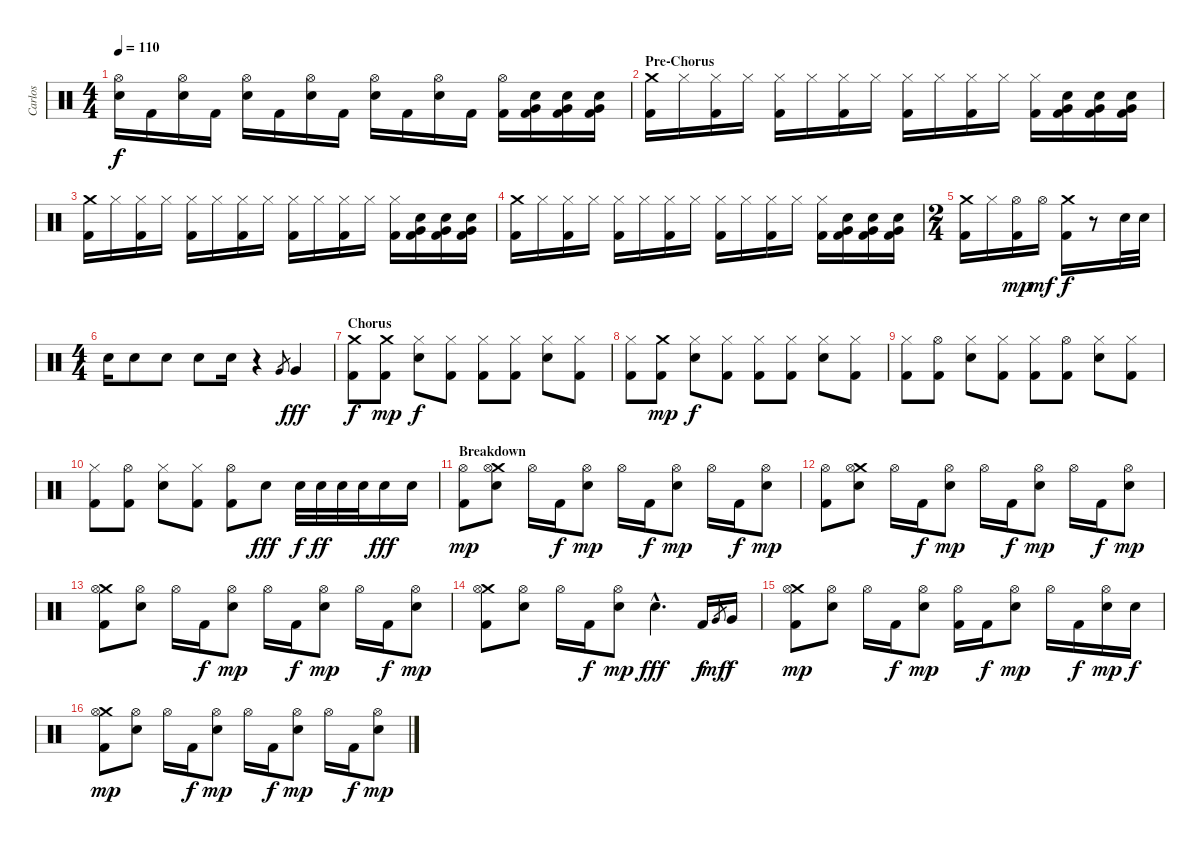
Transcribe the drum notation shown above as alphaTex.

\track ("Carlos" "Carlos") {instrument percussion}
\staff {score}
\articulation defaults
\ts (4 4)
\tempo 110
\clef neutral
\ks c
("Hi-Hat (open)" "Electric Snare (hit)").16{dy f} "Kick (hit) 2".16 ("Hi-Hat (open)" "Electric Snare (hit)").16 "Kick (hit) 2".16 ("Hi-Hat (open)" "Electric Snare (hit)").16 "Kick (hit) 2".16 ("Hi-Hat (open)" "Electric Snare (hit)").16 "Kick (hit) 2".16 ("Hi-Hat (open)" "Electric Snare (hit)").16 "Kick (hit) 2".16 ("Hi-Hat (open)" "Electric Snare (hit)").16 "Kick (hit) 2".16 ("Hi-Hat (open)" "Kick (hit) 2").16 ("Electric Snare (hit)" "Very Low Tom (hit)" "Kick (hit) 2").16 ("Electric Snare (hit)" "Very Low Tom (hit)" "Kick (hit) 2").16 ("Electric Snare (hit)" "Very Low Tom (hit)" "Kick (hit) 2").16 |
\section ("" "Pre-Chorus")
("Crash medium (hit)" "Kick (hit) 2").16 "Hi-Hat (closed)".16 ("Hi-Hat (closed)" "Kick (hit) 2").16 "Hi-Hat (closed)".16 ("Hi-Hat (closed)" "Kick (hit) 2").16 "Hi-Hat (closed)".16 ("Hi-Hat (closed)" "Kick (hit) 2").16 "Hi-Hat (closed)".16 ("Hi-Hat (closed)" "Kick (hit) 2").16 "Hi-Hat (closed)".16 ("Hi-Hat (closed)" "Kick (hit) 2").16 "Hi-Hat (closed)".16 ("Hi-Hat (closed)" "Kick (hit) 2").16 ("Electric Snare (hit)" "Very Low Tom (hit)" "Kick (hit) 2").16 ("Electric Snare (hit)" "Very Low Tom (hit)" "Kick (hit) 2").16 ("Electric Snare (hit)" "Very Low Tom (hit)" "Kick (hit) 2").16 |
("Crash medium (hit)" "Kick (hit) 2").16 "Hi-Hat (closed)".16 ("Hi-Hat (closed)" "Kick (hit) 2").16 "Hi-Hat (closed)".16 ("Hi-Hat (closed)" "Kick (hit) 2").16 "Hi-Hat (closed)".16 ("Hi-Hat (closed)" "Kick (hit) 2").16 "Hi-Hat (closed)".16 ("Hi-Hat (closed)" "Kick (hit) 2").16 "Hi-Hat (closed)".16 ("Hi-Hat (closed)" "Kick (hit) 2").16 "Hi-Hat (closed)".16 ("Hi-Hat (closed)" "Kick (hit) 2").16 ("Electric Snare (hit)" "Very Low Tom (hit)" "Kick (hit) 2").16 ("Electric Snare (hit)" "Very Low Tom (hit)" "Kick (hit) 2").16 ("Electric Snare (hit)" "Very Low Tom (hit)" "Kick (hit) 2").16 |
("Crash medium (hit)" "Kick (hit) 2").16 "Hi-Hat (closed)".16 ("Hi-Hat (closed)" "Kick (hit) 2").16 "Hi-Hat (closed)".16 ("Hi-Hat (closed)" "Kick (hit) 2").16 "Hi-Hat (closed)".16 ("Hi-Hat (closed)" "Kick (hit) 2").16 "Hi-Hat (closed)".16 ("Hi-Hat (closed)" "Kick (hit) 2").16 "Hi-Hat (closed)".16 ("Hi-Hat (closed)" "Kick (hit) 2").16 "Hi-Hat (closed)".16 ("Hi-Hat (closed)" "Kick (hit) 2").16 ("Electric Snare (hit)" "Very Low Tom (hit)" "Kick (hit) 2").16 ("Electric Snare (hit)" "Very Low Tom (hit)" "Kick (hit) 2").16 ("Electric Snare (hit)" "Very Low Tom (hit)" "Kick (hit) 2").16 |
\ts (2 4)
("Crash medium (hit)" "Kick (hit) 2").16 "Hi-Hat (closed)".16 ("Hi-Hat (open)" "Kick (hit) 2").16{dy mp} "Hi-Hat (open)".16{dy mf} ("Crash medium (hit)" "Kick (hit) 2").16{dy f} r.8 "Electric Snare (hit)".32 "Electric Snare (hit)".32 |
\ts (4 4)
"Electric Snare (hit)".16 "Electric Snare (hit)".8 "Electric Snare (hit)".8 "Electric Snare (hit)".8 "Electric Snare (hit)".16 r.4 "Very Low Tom (hit)".8{gr} "Very Low Tom (hit)".4{dy fff} |
\section ("" "Chorus")
("Crash medium (hit)" "Kick (hit) 2").8{dy f} ("Crash medium (hit)" "Kick (hit) 2").8{dy mp} ("Hi-Hat (closed)" "Electric Snare (hit)").8{dy f} ("Hi-Hat (closed)" "Kick (hit) 2").8 ("Hi-Hat (closed)" "Kick (hit) 2").8 ("Hi-Hat (closed)" "Kick (hit) 2").8 ("Hi-Hat (closed)" "Electric Snare (hit)").8 ("Hi-Hat (closed)" "Kick (hit) 2").8 |
("Hi-Hat (closed)" "Kick (hit) 2").8 ("Crash medium (hit)" "Kick (hit) 2").8{dy mp} ("Hi-Hat (closed)" "Electric Snare (hit)").8{dy f} ("Hi-Hat (closed)" "Kick (hit) 2").8 ("Hi-Hat (closed)" "Kick (hit) 2").8 ("Hi-Hat (closed)" "Kick (hit) 2").8 ("Hi-Hat (closed)" "Electric Snare (hit)").8 ("Hi-Hat (closed)" "Kick (hit) 2").8 |
("Hi-Hat (closed)" "Kick (hit) 2").8 ("Hi-Hat (open)" "Kick (hit) 2").8 ("Hi-Hat (closed)" "Electric Snare (hit)").8 ("Hi-Hat (closed)" "Kick (hit) 2").8 ("Hi-Hat (closed)" "Kick (hit) 2").8 ("Hi-Hat (open)" "Kick (hit) 2").8 ("Hi-Hat (closed)" "Electric Snare (hit)").8 ("Hi-Hat (closed)" "Kick (hit) 2").8 |
("Hi-Hat (closed)" "Kick (hit) 2").8 ("Hi-Hat (open)" "Kick (hit) 2").8 ("Hi-Hat (closed)" "Electric Snare (hit)").8 ("Hi-Hat (closed)" "Kick (hit) 2").8 ("Hi-Hat (open)" "Kick (hit) 2").8 "Electric Snare (hit)".8{dy fff} "Electric Snare (hit)".32{dy f} "Electric Snare (hit)".32{dy ff} "Electric Snare (hit)".32 "Electric Snare (hit)".32 "Electric Snare (hit)".16{dy fff} "Electric Snare (hit)".16 |
\section ("" "Breakdown")
("Hi-Hat (open)" "Kick (hit) 2").8{dy mp} ("Crash medium (hit)" "Hi-Hat (open)" "Electric Snare (hit)").8 "Hi-Hat (open)".16 "Kick (hit) 2".16{dy f} ("Hi-Hat (open)" "Electric Snare (hit)").8{dy mp} "Hi-Hat (open)".16 "Kick (hit) 2".16{dy f} ("Hi-Hat (open)" "Electric Snare (hit)").8{dy mp} "Hi-Hat (open)".16 "Kick (hit) 2".16{dy f} ("Hi-Hat (open)" "Electric Snare (hit)").8{dy mp} |
("Hi-Hat (open)" "Kick (hit) 2").8 ("Crash medium (hit)" "Hi-Hat (open)" "Electric Snare (hit)").8 "Hi-Hat (open)".16 "Kick (hit) 2".16{dy f} ("Hi-Hat (open)" "Electric Snare (hit)").8{dy mp} "Hi-Hat (open)".16 "Kick (hit) 2".16{dy f} ("Hi-Hat (open)" "Electric Snare (hit)").8{dy mp} "Hi-Hat (open)".16 "Kick (hit) 2".16{dy f} ("Hi-Hat (open)" "Electric Snare (hit)").8{dy mp} |
("Crash medium (hit)" "Hi-Hat (open)" "Kick (hit) 2").8 ("Hi-Hat (open)" "Electric Snare (hit)").8 "Hi-Hat (open)".16 "Kick (hit) 2".16{dy f} ("Hi-Hat (open)" "Electric Snare (hit)").8{dy mp} "Hi-Hat (open)".16 "Kick (hit) 2".16{dy f} ("Hi-Hat (open)" "Electric Snare (hit)").8{dy mp} "Hi-Hat (open)".16 "Kick (hit) 2".16{dy f} ("Hi-Hat (open)" "Electric Snare (hit)").8{dy mp} |
("Crash medium (hit)" "Hi-Hat (open)" "Kick (hit) 2").8 ("Hi-Hat (open)" "Electric Snare (hit)").8 "Hi-Hat (open)".16 "Kick (hit) 2".16{dy f} ("Hi-Hat (open)" "Electric Snare (hit)").8{dy mp} "Electric Snare (hit)"{hac}.4{d dy fff} "Kick (hit) 2".16{dy f} "Very Low Tom (hit)".8{gr dy mf} "Very Low Tom (hit)".16{dy f} |
("Crash medium (hit)" "Hi-Hat (open)" "Kick (hit) 2").8{dy mp} ("Hi-Hat (open)" "Electric Snare (hit)").8 "Hi-Hat (open)".16 "Kick (hit) 2".16{dy f} ("Hi-Hat (open)" "Electric Snare (hit)").8{dy mp} ("Hi-Hat (open)" "Kick (hit) 2").16 "Kick (hit) 2".16{dy f} ("Hi-Hat (open)" "Electric Snare (hit)").8{dy mp} "Hi-Hat (open)".16 "Kick (hit) 2".16{dy f} ("Hi-Hat (open)" "Electric Snare (hit)").16{dy mp} "Electric Snare (hit)".16{dy f} |
("Crash medium (hit)" "Hi-Hat (open)" "Kick (hit) 2").8{dy mp} ("Hi-Hat (open)" "Electric Snare (hit)").8 "Hi-Hat (open)".16 "Kick (hit) 2".16{dy f} ("Hi-Hat (open)" "Electric Snare (hit)").8{dy mp} "Hi-Hat (open)".16 "Kick (hit) 2".16{dy f} ("Hi-Hat (open)" "Electric Snare (hit)").8{dy mp} "Hi-Hat (open)".16 "Kick (hit) 2".16{dy f} ("Hi-Hat (open)" "Electric Snare (hit)").8{dy mp}
